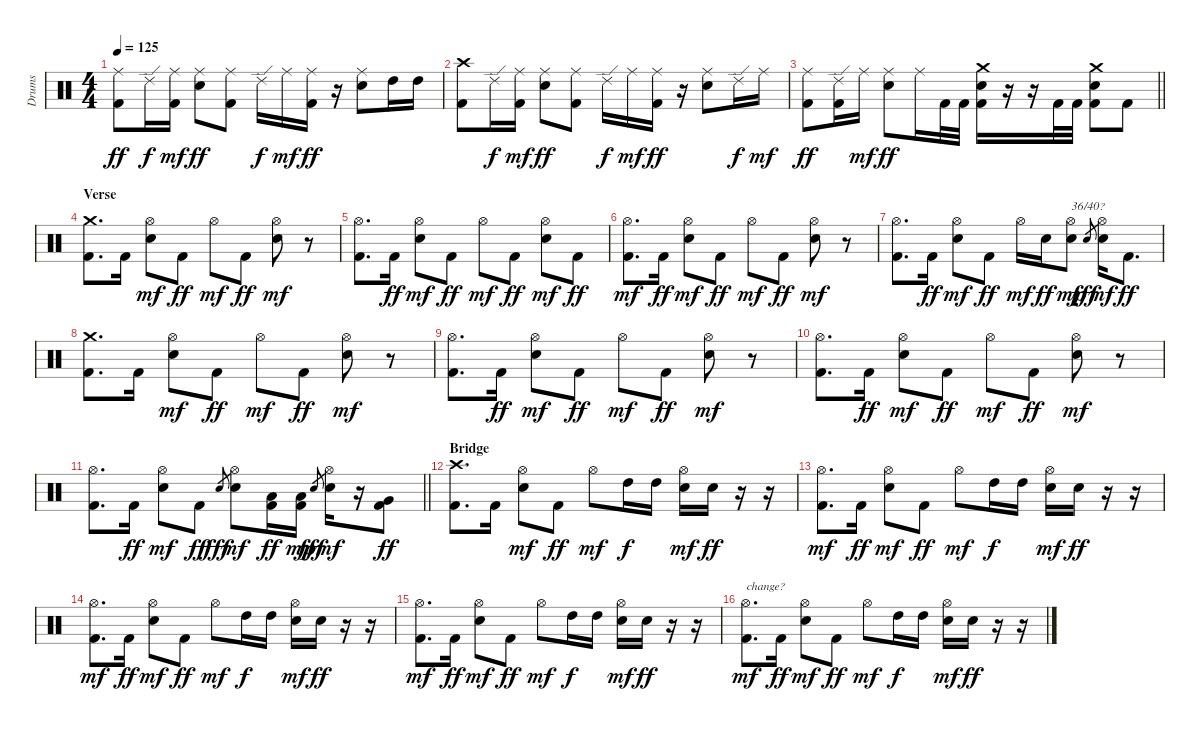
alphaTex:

\track ("Drums" "Drums") {instrument percussion}
\staff {score}
\articulation defaults
\ts (4 4)
\tempo 125
\clef neutral
\ks c
("Kick (hit) 2" "Ride (middle)").8{dy ff} "Ride (edge) 2".16{dy f} ("Kick (hit) 2" "Ride (middle)").16{dy mf} ("Electric Snare (hit)" "Ride (middle)").8{dy ff} ("Kick (hit) 2" "Ride (middle)").8 "Ride (edge) 2".16{dy f} "Ride (middle)".16{dy mf} ("Kick (hit) 2" "Ride (middle)").16{dy ff} r.16 ("Electric Snare (hit)" "Ride (middle)").8 "High Tom (hit)".16 "High Tom (hit)".16 |
("Kick (hit) 2" "Crash high (hit)").8 "Ride (edge) 2".16{dy f} ("Kick (hit) 2" "Ride (middle)").16{dy mf} ("Electric Snare (hit)" "Ride (middle)").8{dy ff} ("Kick (hit) 2" "Ride (middle)").8 "Ride (edge) 2".16{dy f} "Ride (middle)".16{dy mf} ("Kick (hit) 2" "Ride (middle)").16{dy ff} r.16 ("Electric Snare (hit)" "Ride (middle)").8 "Ride (edge) 2".16{dy f} "Ride (middle)".16{dy mf} |
\barLineRight lightlight
("Kick (hit) 2" "Ride (middle)").8{dy ff} ("Kick (hit) 2" "Ride (edge) 2").16 "Ride (middle)".16{dy mf} ("Electric Snare (hit)" "Ride (middle)").8{dy ff} "Ride (middle)".16 "Kick (hit) 2".32 "Kick (hit) 2".32 ("Kick (hit) 2" "Electric Snare (hit)" "Crash medium (hit)").16 r.16 r.16 "Kick (hit) 2".32 "Kick (hit) 2".32 ("Kick (hit) 2" "Electric Snare (hit)" "Crash medium (hit)").8 "Kick (hit) 2".8 |
\section ("" "Verse")
("Kick (hit) 2" "Crash medium (hit)").8{d} "Kick (hit) 2".16 ("Electric Snare (hit)" "Hi-Hat (open)").8{dy mf} "Kick (hit) 2".8{dy ff} "Hi-Hat (open)".8{dy mf} "Kick (hit) 2".8{dy ff} ("Electric Snare (hit)" "Hi-Hat (open)").8{dy mf} r.8 |
("Kick (hit) 2" "Hi-Hat (open)").8{d} "Kick (hit) 2".16{dy ff} ("Electric Snare (hit)" "Hi-Hat (open)").8{dy mf} "Kick (hit) 2".8{dy ff} "Hi-Hat (open)".8{dy mf} "Kick (hit) 2".8{dy ff} ("Electric Snare (hit)" "Hi-Hat (open)").8{dy mf} "Kick (hit) 2".8{dy ff} |
("Kick (hit) 2" "Hi-Hat (open)").8{d dy mf} "Kick (hit) 2".16{dy ff} ("Electric Snare (hit)" "Hi-Hat (open)").8{dy mf} "Kick (hit) 2".8{dy ff} "Hi-Hat (open)".8{dy mf} "Kick (hit) 2".8{dy ff} ("Electric Snare (hit)" "Hi-Hat (open)").8{dy mf} r.8 |
("Kick (hit) 2" "Hi-Hat (open)").8{d} "Kick (hit) 2".16{dy ff} ("Electric Snare (hit)" "Hi-Hat (open)").8{dy mf} "Kick (hit) 2".8{dy ff} "Hi-Hat (open)".16{dy mf} "Electric Snare (hit)".16{dy ff} ("Electric Snare (hit)" "Hi-Hat (open)").8{txt "36/40?" dy mp} "Electric Snare (hit)".8{gr dy fff} ("Electric Snare (hit)" "Hi-Hat (open)").16{dy mf} "Kick (hit) 2".8{d dy ff} |
("Kick (hit) 2" "Crash medium (hit)").8{d} "Kick (hit) 2".16 ("Electric Snare (hit)" "Hi-Hat (open)").8{dy mf} "Kick (hit) 2".8{dy ff} "Hi-Hat (open)".8{dy mf} "Kick (hit) 2".8{dy ff} ("Electric Snare (hit)" "Hi-Hat (open)").8{dy mf} r.8 |
("Kick (hit) 2" "Hi-Hat (open)").8{d} "Kick (hit) 2".16{dy ff} ("Electric Snare (hit)" "Hi-Hat (open)").8{dy mf} "Kick (hit) 2".8{dy ff} "Hi-Hat (open)".8{dy mf} "Kick (hit) 2".8{dy ff} ("Electric Snare (hit)" "Hi-Hat (open)").8{dy mf} r.8 |
("Kick (hit) 2" "Hi-Hat (open)").8{d} "Kick (hit) 2".16{dy ff} ("Electric Snare (hit)" "Hi-Hat (open)").8{dy mf} "Kick (hit) 2".8{dy ff} "Hi-Hat (open)".8{dy mf} "Kick (hit) 2".8{dy ff} ("Electric Snare (hit)" "Hi-Hat (open)").8{dy mf} r.8 |
\barLineRight lightlight
("Kick (hit) 2" "Hi-Hat (open)").8{d} "Kick (hit) 2".16{dy ff} ("Electric Snare (hit)" "Hi-Hat (open)").8{dy mf} "Kick (hit) 2".8{dy ff} "Electric Snare (hit)".8{gr dy fff} ("Electric Snare (hit)" "Hi-Hat (open)").8{dy mf} ("Kick (hit) 2" "Low Tom (hit)").16{dy ff} ("Kick (hit) 2" "Low Tom (hit)").16{dy mp} "Electric Snare (hit)".8{gr dy fff} ("Electric Snare (hit)" "Hi-Hat (open)").16{dy mf} r.16 ("Kick (hit) 2" "Very Low Tom (hit)").8{dy ff} |
\section ("" "Bridge")
("Kick (hit) 2" "Crash high (hit)").8{d} "Kick (hit) 2".16 ("Electric Snare (hit)" "Hi-Hat (open)").8{dy mf} "Kick (hit) 2".8{dy ff} "Hi-Hat (open)".8{dy mf} "High Tom (hit)".16{dy f} "High Tom (hit)".16 ("Electric Snare (hit)" "Hi-Hat (open)").16{dy mf} "Electric Snare (hit)".16{dy ff} r.16 r.16 |
("Kick (hit) 2" "Hi-Hat (open)").8{d dy mf} "Kick (hit) 2".16{dy ff} ("Electric Snare (hit)" "Hi-Hat (open)").8{dy mf} "Kick (hit) 2".8{dy ff} "Hi-Hat (open)".8{dy mf} "High Tom (hit)".16{dy f} "High Tom (hit)".16 ("Electric Snare (hit)" "Hi-Hat (open)").16{dy mf} "Electric Snare (hit)".16{dy ff} r.16 r.16 |
("Kick (hit) 2" "Hi-Hat (open)").8{d dy mf} "Kick (hit) 2".16{dy ff} ("Electric Snare (hit)" "Hi-Hat (open)").8{dy mf} "Kick (hit) 2".8{dy ff} "Hi-Hat (open)".8{dy mf} "High Tom (hit)".16{dy f} "High Tom (hit)".16 ("Electric Snare (hit)" "Hi-Hat (open)").16{dy mf} "Electric Snare (hit)".16{dy ff} r.16 r.16 |
("Kick (hit) 2" "Hi-Hat (open)").8{d dy mf} "Kick (hit) 2".16{dy ff} ("Electric Snare (hit)" "Hi-Hat (open)").8{dy mf} "Kick (hit) 2".8{dy ff} "Hi-Hat (open)".8{dy mf} "High Tom (hit)".16{dy f} "High Tom (hit)".16 ("Electric Snare (hit)" "Hi-Hat (open)").16{dy mf} "Electric Snare (hit)".16{dy ff} r.16 r.16 |
("Kick (hit) 2" "Hi-Hat (open)").8{d txt "change?" dy mf} "Kick (hit) 2".16{dy ff} ("Electric Snare (hit)" "Hi-Hat (open)").8{dy mf} "Kick (hit) 2".8{dy ff} "Hi-Hat (open)".8{dy mf} "High Tom (hit)".16{dy f} "High Tom (hit)".16 ("Electric Snare (hit)" "Hi-Hat (open)").16{dy mf} "Electric Snare (hit)".16{dy ff} r.16 r.16
